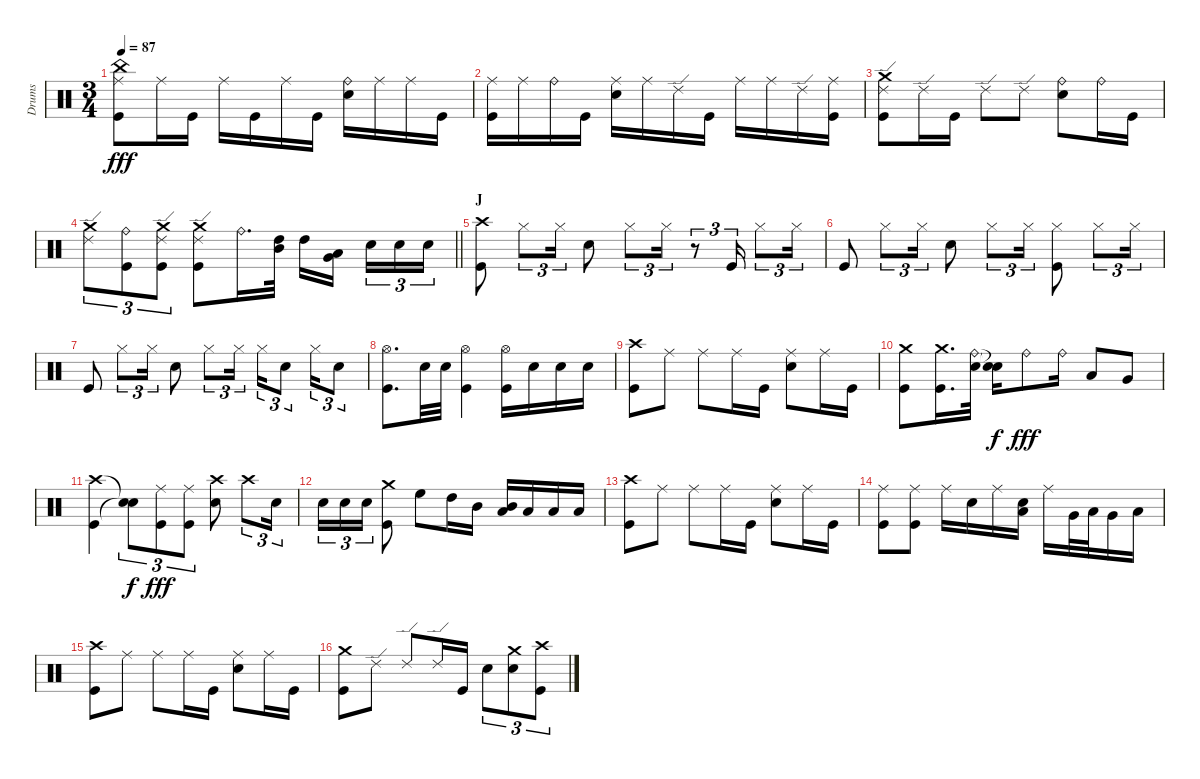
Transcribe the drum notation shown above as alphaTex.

\track ("Drums" "Drums") {instrument percussion}
\staff {score}
\articulation defaults
\ts (3 4)
\tempo 87
\clef neutral
\ks c
("Ride (middle)" "China (hit)" "Kick (hit)").8{dy fff} "Ride (middle)".16 "Kick (hit)".16 "Ride (middle)".16 "Kick (hit)".16 "Ride (middle)".16 "Kick (hit)".16 ("Ride (bell)" "Snare (hit) 2").16 "Ride (middle)".16 "Ride (middle)".16 "Kick (hit)".16 |
("Ride (middle)" "Kick (hit)").16 "Ride (middle)".16 "Ride (bell)".16 "Kick (hit)".16 ("Ride (middle)" "Snare (hit) 2").16 "Ride (middle)".16 "Ride (edge) 2".16 "Kick (hit)".16 "Ride (middle)".16 "Ride (middle)".16 "Ride (edge) 2".16 ("Ride (middle)" "Kick (hit)").16 |
("Ride (edge) 2" "Crash medium (hit)" "Kick (hit)").8 "Ride (edge) 2".16 "Kick (hit)".16 "Ride (edge) 2".8 "Ride (edge) 2".8 ("Ride (bell)" "Snare (hit) 2").8 "Ride (bell)".16 "Kick (hit)".16 |
\barLineRight lightlight
("Ride (edge) 2" "Crash medium (hit)").8{tu (3 2)} ("Ride (bell)" "Kick (hit)").8{tu (3 2)} ("Ride (edge) 2" "Crash medium (hit)" "Kick (hit)").8{tu (3 2)} ("Ride (edge) 2" "Crash medium (hit)" "Kick (hit)").8 "Ride (bell)".16{d} ("High Tom (hit)" "Mid Tom (hit)").32 "High Tom (hit)".16 ("Low Tom (hit)" "Very Low Tom (hit)").16 "Snare (hit) 2".16{tu (3 2)} "Snare (hit) 2".16{tu (3 2)} "Snare (hit) 2".16{tu (3 2)} |
\section ("" "J")
("Crash high (hit)" "Kick (hit)").8 "Hi-Hat (closed)".8{tu (3 2)} "Hi-Hat (closed)".16{tu (3 2)} "Snare (hit) 2".8 "Hi-Hat (closed)".8{tu (3 2)} "Hi-Hat (closed)".16{tu (3 2)} r.8{tu (3 2)} "Kick (hit)".16{tu (3 2)} "Hi-Hat (closed)".8{tu (3 2)} "Hi-Hat (closed)".16{tu (3 2)} |
"Kick (hit)".8 "Hi-Hat (closed)".8{tu (3 2)} "Hi-Hat (closed)".16{tu (3 2)} "Snare (hit) 2".8 "Hi-Hat (closed)".8{tu (3 2)} "Hi-Hat (closed)".16{tu (3 2)} ("Hi-Hat (closed)" "Kick (hit)").8 "Hi-Hat (closed)".8{tu (3 2)} "Hi-Hat (closed)".16{tu (3 2)} |
"Kick (hit)".8 "Hi-Hat (closed)".8{tu (3 2)} "Hi-Hat (closed)".16{tu (3 2)} "Snare (hit) 2".8 "Hi-Hat (closed)".8{tu (3 2)} "Hi-Hat (closed)".16{tu (3 2)} "Hi-Hat (closed)".16{tu (3 2)} "Snare (hit) 2".8{tu (3 2)} "Hi-Hat (closed)".16{tu (3 2)} "Snare (hit) 2".8{tu (3 2)} |
("Hi-Hat (open)" "Kick (hit)").8{d} "Snare (hit) 2".32 "Snare (hit) 2".32 ("Hi-Hat (open)" "Kick (hit)").4 ("Hi-Hat (open)" "Kick (hit)").16 "Snare (hit) 2".16 "Snare (hit) 2".16 "Snare (hit) 2".16 |
("Crash high (hit)" "Kick (hit)").8 "Ride (middle)".8 "Ride (middle)".8 "Ride (middle)".16 "Kick (hit)".16 ("Ride (middle)" "Snare (hit) 2").8 "Ride (middle)".16 "Kick (hit)".16 |
("Crash medium (hit)" "Kick (hit)").8 ("Crash medium (hit)" "Kick (hit)").16{d} ("Ride (bell)" "Snare (hit) 2").32 ("Snare (hit)"{t} "Snare (hit)"{t}).16{dy f} "Ride (bell)".8{dy fff} "Ride (bell)".16 "Low Tom (hit)".8 "Very Low Tom (hit)".8 |
("Crash high (hit)" "Kick (hit)").4 ("Snare (hit)"{t} "Snare (hit)"{t}).8{tu (3 2) dy f} ("Ride (middle)" "Kick (hit)").8{tu (3 2) dy fff} ("Ride (middle)" "Kick (hit)").8{tu (3 2)} ("Crash high (hit)" "Snare (hit) 2").8 "Crash high (hit)".8{tu (3 2)} "Snare (hit) 2".16{tu (3 2)} |
"Snare (hit) 2".16{tu (3 2)} "Snare (hit) 2".16{tu (3 2)} "Snare (hit) 2".16{tu (3 2)} ("Crash medium (hit)" "Kick (hit)").8 "High Floor Tom (hit)".8 "High Tom (hit)".16 "Mid Tom (hit)".16 ("Mid Tom (hit)" "Low Tom (hit)").16 "Low Tom (hit)".16 "Low Floor Tom (hit)".16 "Low Floor Tom (hit)".16 |
("Crash high (hit)" "Kick (hit)").8 "Ride (middle)".8 "Ride (middle)".8 "Ride (middle)".16 "Kick (hit)".16 ("Ride (middle)" "Snare (hit) 2").8 "Ride (middle)".16 "Kick (hit)".16 |
("Ride (middle)" "Kick (hit)").8 ("Ride (middle)" "Kick (hit)").8 "Ride (middle)".16 "Snare (hit) 2".16 "Ride (middle)".16 ("Low Floor Tom (hit)" "Snare (hit) 2").16 "Ride (middle)".16 "Very Low Tom (hit)".32 "Low Tom (hit)".32 "Very Low Tom (hit)".16 "Low Floor Tom (hit)".16 |
("Crash high (hit)" "Kick (hit)").8 "Ride (middle)".8 "Ride (middle)".8 "Ride (middle)".16 "Kick (hit)".16 ("Ride (middle)" "Snare (hit) 2").8 "Ride (middle)".16 "Kick (hit)".16 |
("Crash medium (hit)" "Kick (hit)").8 "Ride (edge) 2".8 "Ride (edge) 2".8 "Ride (edge) 2".16 "Kick (hit)".16 "Snare (hit) 2".8{tu (3 2)} ("Crash medium (hit)" "Snare (hit) 2").8{tu (3 2)} ("Crash high (hit)" "Kick (hit)").8{tu (3 2)}
